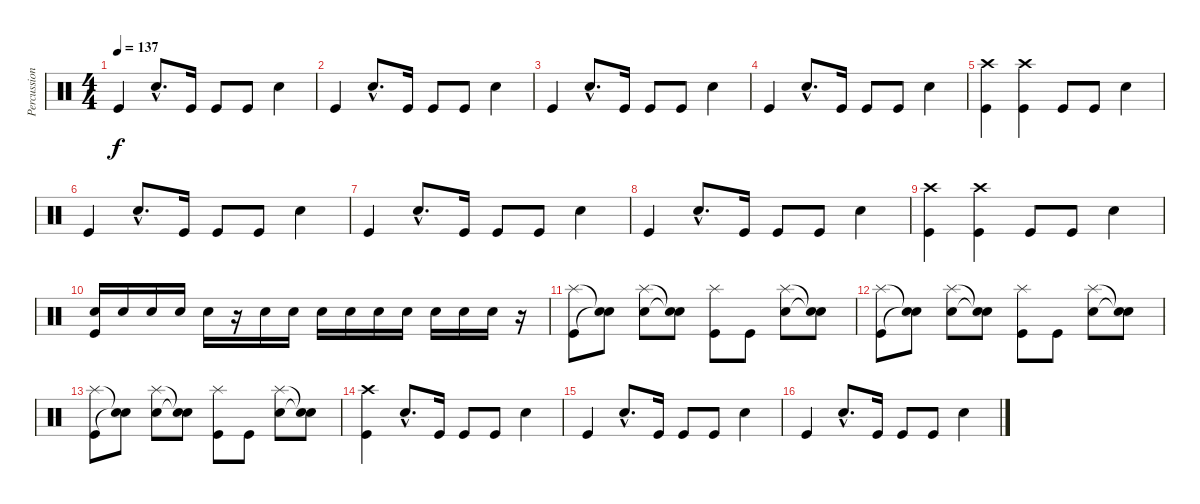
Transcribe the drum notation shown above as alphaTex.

\track ("Percussion" "Percussion") {instrument percussion}
\staff {score}
\articulation defaults
\ts (4 4)
\tempo 137
\clef neutral
\ks c "Kick (hit)".4{dy f} "Snare (hit) 2"{hac}.8{d} "Kick (hit)".16 "Kick (hit)".8 "Kick (hit)".8 "Snare (hit) 2".4
|
"Kick (hit)".4 "Snare (hit) 2"{hac}.8{d} "Kick (hit)".16 "Kick (hit)".8 "Kick (hit)".8 "Snare (hit) 2".4 |
"Kick (hit)".4 "Snare (hit) 2"{hac}.8{d} "Kick (hit)".16 "Kick (hit)".8 "Kick (hit)".8 "Snare (hit) 2".4 |
"Kick (hit)".4 "Snare (hit) 2"{hac}.8{d} "Kick (hit)".16 "Kick (hit)".8 "Kick (hit)".8 "Snare (hit) 2".4 |
("Crash high (hit)" "Kick (hit)").4 ("Crash high (hit)" "Kick (hit)").4 "Kick (hit)".8 "Kick (hit)".8 "Snare (hit) 2".4 |
"Kick (hit)".4 "Snare (hit) 2"{hac}.8{d} "Kick (hit)".16 "Kick (hit)".8 "Kick (hit)".8 "Snare (hit) 2".4 |
"Kick (hit)".4 "Snare (hit) 2"{hac}.8{d} "Kick (hit)".16 "Kick (hit)".8 "Kick (hit)".8 "Snare (hit) 2".4 |
"Kick (hit)".4 "Snare (hit) 2"{hac}.8{d} "Kick (hit)".16 "Kick (hit)".8 "Kick (hit)".8 "Snare (hit) 2".4 |
("Crash high (hit)" "Kick (hit)").4 ("Crash high (hit)" "Kick (hit)").4 "Kick (hit)".8 "Kick (hit)".8 "Snare (hit) 2".4 |
("Snare (hit) 2" "Kick (hit)").16 "Snare (hit) 2".16 "Snare (hit) 2".16 "Snare (hit) 2".16 "Snare (hit) 2".16 r.16 "Snare (hit) 2".16 "Snare (hit) 2".16 "Snare (hit) 2".16 "Snare (hit) 2".16 "Snare (hit) 2".16 "Snare (hit) 2".16 "Snare (hit) 2".16 "Snare (hit) 2".16 "Snare (hit) 2".16 r.16 |
("Splash (hit)" "Kick (hit)").8 ("Snare (hit)"{t} "Snare (hit)"{t}).8 ("Splash (hit)" "Snare (hit) 2").8 ("Snare (hit)"{t} "Snare (hit)"{t}).8 ("Splash (hit)" "Kick (hit)").8 "Kick (hit)".8 ("Splash (hit)" "Snare (hit) 2").8 ("Snare (hit)"{t} "Snare (hit)"{t}).8 |
("Splash (hit)" "Kick (hit)").8 ("Snare (hit)"{t} "Snare (hit)"{t}).8 ("Splash (hit)" "Snare (hit) 2").8 ("Snare (hit)"{t} "Snare (hit)"{t}).8 ("Splash (hit)" "Kick (hit)").8 "Kick (hit)".8 ("Splash (hit)" "Snare (hit) 2").8 ("Snare (hit)"{t} "Snare (hit)"{t}).8 |
("Splash (hit)" "Kick (hit)").8 ("Snare (hit)"{t} "Snare (hit)"{t}).8 ("Splash (hit)" "Snare (hit) 2").8 ("Snare (hit)"{t} "Snare (hit)"{t}).8 ("Splash (hit)" "Kick (hit)").8 "Kick (hit)".8 ("Splash (hit)" "Snare (hit) 2").8 ("Snare (hit)"{t} "Snare (hit)"{t}).8 |
("Crash high (hit)" "Kick (hit)").4 "Snare (hit) 2"{hac}.8{d} "Kick (hit)".16 "Kick (hit)".8 "Kick (hit)".8 "Snare (hit) 2".4 |
"Kick (hit)".4 "Snare (hit) 2"{hac}.8{d} "Kick (hit)".16 "Kick (hit)".8 "Kick (hit)".8 "Snare (hit) 2".4 |
"Kick (hit)".4 "Snare (hit) 2"{hac}.8{d} "Kick (hit)".16 "Kick (hit)".8 "Kick (hit)".8 "Snare (hit) 2".4
